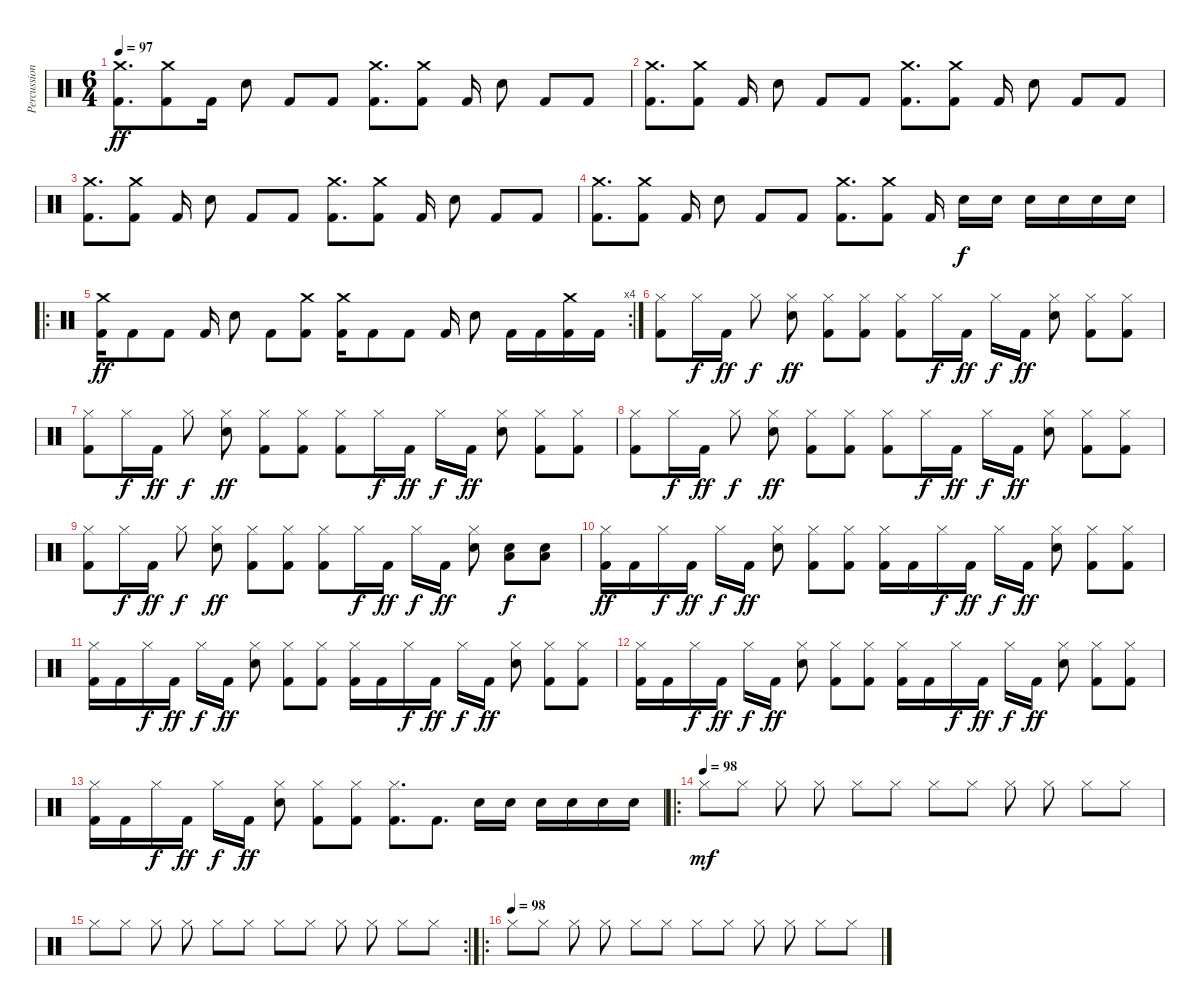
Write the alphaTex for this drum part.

\track ("Percussion" "Percussion") {instrument percussion}
\staff {score}
\articulation defaults
\ts (6 4)
\tempo 97
\clef neutral
\ks c
("Crash medium (hit)" "Kick (hit) 2").8{d dy ff} ("Crash medium (hit)" "Kick (hit) 2").8{beam merge} "Kick (hit) 2".16{beam split} "Electric Snare (hit)".8 "Kick (hit) 2".8 "Kick (hit) 2".8 ("Crash medium (hit)" "Kick (hit) 2").8{d} ("Crash medium (hit)" "Kick (hit) 2").8 "Kick (hit) 2".16{beam split} "Electric Snare (hit)".8 "Kick (hit) 2".8 "Kick (hit) 2".8 |
("Crash medium (hit)" "Kick (hit) 2").8{d} ("Crash medium (hit)" "Kick (hit) 2").8 "Kick (hit) 2".16{beam split} "Electric Snare (hit)".8 "Kick (hit) 2".8 "Kick (hit) 2".8 ("Crash medium (hit)" "Kick (hit) 2").8{d} ("Crash medium (hit)" "Kick (hit) 2").8 "Kick (hit) 2".16{beam split} "Electric Snare (hit)".8 "Kick (hit) 2".8 "Kick (hit) 2".8 |
("Crash medium (hit)" "Kick (hit) 2").8{d} ("Crash medium (hit)" "Kick (hit) 2").8 "Kick (hit) 2".16{beam split} "Electric Snare (hit)".8 "Kick (hit) 2".8 "Kick (hit) 2".8 ("Crash medium (hit)" "Kick (hit) 2").8{d} ("Crash medium (hit)" "Kick (hit) 2").8 "Kick (hit) 2".16{beam split} "Electric Snare (hit)".8 "Kick (hit) 2".8 "Kick (hit) 2".8 |
("Crash medium (hit)" "Kick (hit) 2").8{d} ("Crash medium (hit)" "Kick (hit) 2").8 "Kick (hit) 2".16{beam split} "Electric Snare (hit)".8 "Kick (hit) 2".8 "Kick (hit) 2".8 ("Crash medium (hit)" "Kick (hit) 2").8{d} ("Crash medium (hit)" "Kick (hit) 2").8 "Kick (hit) 2".16{beam split} "Electric Snare (hit)".16{dy f} "Electric Snare (hit)".16 "Electric Snare (hit)".16 "Electric Snare (hit)".16 "Electric Snare (hit)".16 "Electric Snare (hit)".16 |
\ro
\rc 4
("Crash medium (hit)" "Kick (hit) 2").16{dy ff} "Kick (hit) 2".8 "Kick (hit) 2".8 "Kick (hit) 2".16{beam split} "Electric Snare (hit)".8 "Kick (hit) 2".8 ("Crash medium (hit)" "Kick (hit) 2").8 ("Crash medium (hit)" "Kick (hit) 2").16 "Kick (hit) 2".8 "Kick (hit) 2".8 "Kick (hit) 2".16{beam split} "Electric Snare (hit)".8 "Kick (hit) 2".16 "Kick (hit) 2".16 ("Crash medium (hit)" "Kick (hit) 2").16 "Kick (hit) 2".16 |
("Hi-Hat (closed)" "Kick (hit) 2").8 "Hi-Hat (closed)".16{dy f} "Kick (hit) 2".16{dy ff} "Hi-Hat (closed)".8{dy f beam split} ("Hi-Hat (closed)" "Electric Snare (hit)").8{dy ff} ("Hi-Hat (closed)" "Kick (hit) 2").8 ("Hi-Hat (closed)" "Kick (hit) 2").8 ("Hi-Hat (closed)" "Kick (hit) 2").8 "Hi-Hat (closed)".16{dy f} "Kick (hit) 2".16{dy ff} "Hi-Hat (closed)".16{dy f} "Kick (hit) 2".16{dy ff beam split} ("Hi-Hat (closed)" "Electric Snare (hit)").8 ("Hi-Hat (closed)" "Kick (hit) 2").8 ("Hi-Hat (closed)" "Kick (hit) 2").8 |
("Hi-Hat (closed)" "Kick (hit) 2").8 "Hi-Hat (closed)".16{dy f} "Kick (hit) 2".16{dy ff} "Hi-Hat (closed)".8{dy f beam split} ("Hi-Hat (closed)" "Electric Snare (hit)").8{dy ff} ("Hi-Hat (closed)" "Kick (hit) 2").8 ("Hi-Hat (closed)" "Kick (hit) 2").8 ("Hi-Hat (closed)" "Kick (hit) 2").8 "Hi-Hat (closed)".16{dy f} "Kick (hit) 2".16{dy ff} "Hi-Hat (closed)".16{dy f} "Kick (hit) 2".16{dy ff beam split} ("Hi-Hat (closed)" "Electric Snare (hit)").8 ("Hi-Hat (closed)" "Kick (hit) 2").8 ("Hi-Hat (closed)" "Kick (hit) 2").8 |
("Hi-Hat (closed)" "Kick (hit) 2").8 "Hi-Hat (closed)".16{dy f} "Kick (hit) 2".16{dy ff} "Hi-Hat (closed)".8{dy f beam split} ("Hi-Hat (closed)" "Electric Snare (hit)").8{dy ff} ("Hi-Hat (closed)" "Kick (hit) 2").8 ("Hi-Hat (closed)" "Kick (hit) 2").8 ("Hi-Hat (closed)" "Kick (hit) 2").8 "Hi-Hat (closed)".16{dy f} "Kick (hit) 2".16{dy ff} "Hi-Hat (closed)".16{dy f} "Kick (hit) 2".16{dy ff beam split} ("Hi-Hat (closed)" "Electric Snare (hit)").8 ("Hi-Hat (closed)" "Kick (hit) 2").8 ("Hi-Hat (closed)" "Kick (hit) 2").8 |
("Hi-Hat (closed)" "Kick (hit) 2").8 "Hi-Hat (closed)".16{dy f} "Kick (hit) 2".16{dy ff} "Hi-Hat (closed)".8{dy f beam split} ("Hi-Hat (closed)" "Electric Snare (hit)").8{dy ff} ("Hi-Hat (closed)" "Kick (hit) 2").8 ("Hi-Hat (closed)" "Kick (hit) 2").8 ("Hi-Hat (closed)" "Kick (hit) 2").8 "Hi-Hat (closed)".16{dy f} "Kick (hit) 2".16{dy ff} "Hi-Hat (closed)".16{dy f} "Kick (hit) 2".16{dy ff beam split} ("Hi-Hat (closed)" "Electric Snare (hit)").8 ("Electric Snare (hit)" "Low Floor Tom (hit)").8{dy f} ("Electric Snare (hit)" "Low Floor Tom (hit)").8 |
("Hi-Hat (closed)" "Kick (hit) 2").16{dy ff} "Kick (hit) 2".16 "Hi-Hat (closed)".16{dy f} "Kick (hit) 2".16{dy ff} "Hi-Hat (closed)".16{dy f} "Kick (hit) 2".16{dy ff beam split} ("Hi-Hat (closed)" "Electric Snare (hit)").8 ("Hi-Hat (closed)" "Kick (hit) 2").8 ("Hi-Hat (closed)" "Kick (hit) 2").8 ("Hi-Hat (closed)" "Kick (hit) 2").16 "Kick (hit) 2".16 "Hi-Hat (closed)".16{dy f} "Kick (hit) 2".16{dy ff} "Hi-Hat (closed)".16{dy f} "Kick (hit) 2".16{dy ff beam split} ("Hi-Hat (closed)" "Electric Snare (hit)").8 ("Hi-Hat (closed)" "Kick (hit) 2").8 ("Hi-Hat (closed)" "Kick (hit) 2").8 |
("Hi-Hat (closed)" "Kick (hit) 2").16 "Kick (hit) 2".16 "Hi-Hat (closed)".16{dy f} "Kick (hit) 2".16{dy ff} "Hi-Hat (closed)".16{dy f} "Kick (hit) 2".16{dy ff beam split} ("Hi-Hat (closed)" "Electric Snare (hit)").8 ("Hi-Hat (closed)" "Kick (hit) 2").8 ("Hi-Hat (closed)" "Kick (hit) 2").8 ("Hi-Hat (closed)" "Kick (hit) 2").16 "Kick (hit) 2".16 "Hi-Hat (closed)".16{dy f} "Kick (hit) 2".16{dy ff} "Hi-Hat (closed)".16{dy f} "Kick (hit) 2".16{dy ff beam split} ("Hi-Hat (closed)" "Electric Snare (hit)").8 ("Hi-Hat (closed)" "Kick (hit) 2").8 ("Hi-Hat (closed)" "Kick (hit) 2").8 |
("Hi-Hat (closed)" "Kick (hit) 2").16 "Kick (hit) 2".16 "Hi-Hat (closed)".16{dy f} "Kick (hit) 2".16{dy ff} "Hi-Hat (closed)".16{dy f} "Kick (hit) 2".16{dy ff beam split} ("Hi-Hat (closed)" "Electric Snare (hit)").8 ("Hi-Hat (closed)" "Kick (hit) 2").8 ("Hi-Hat (closed)" "Kick (hit) 2").8 ("Hi-Hat (closed)" "Kick (hit) 2").16 "Kick (hit) 2".16 "Hi-Hat (closed)".16{dy f} "Kick (hit) 2".16{dy ff} "Hi-Hat (closed)".16{dy f} "Kick (hit) 2".16{dy ff beam split} ("Hi-Hat (closed)" "Electric Snare (hit)").8 ("Hi-Hat (closed)" "Kick (hit) 2").8 ("Hi-Hat (closed)" "Kick (hit) 2").8 |
("Hi-Hat (closed)" "Kick (hit) 2").16 "Kick (hit) 2".16 "Hi-Hat (closed)".16{dy f} "Kick (hit) 2".16{dy ff} "Hi-Hat (closed)".16{dy f} "Kick (hit) 2".16{dy ff beam split} ("Hi-Hat (closed)" "Electric Snare (hit)").8 ("Hi-Hat (closed)" "Kick (hit) 2").8 ("Hi-Hat (closed)" "Kick (hit) 2").8 ("Hi-Hat (closed)" "Kick (hit) 2").8{d} "Kick (hit) 2".8{d beam split} "Electric Snare (hit)".16 "Electric Snare (hit)".16 "Electric Snare (hit)".16 "Electric Snare (hit)".16 "Electric Snare (hit)".16 "Electric Snare (hit)".16 |
\ro
\tempo (98)
"Hi-Hat (closed)".8{dy mf} "Hi-Hat (closed)".8 "Hi-Hat (closed)".8{beam split} "Hi-Hat (closed)".8 "Hi-Hat (closed)".8 "Hi-Hat (closed)".8 "Hi-Hat (closed)".8 "Hi-Hat (closed)".8 "Hi-Hat (closed)".8{beam split} "Hi-Hat (closed)".8 "Hi-Hat (closed)".8 "Hi-Hat (closed)".8 |
\rc 2 "Hi-Hat (closed)".8 "Hi-Hat (closed)".8 "Hi-Hat (closed)".8{beam split} "Hi-Hat (closed)".8 "Hi-Hat (closed)".8 "Hi-Hat (closed)".8 "Hi-Hat (closed)".8 "Hi-Hat (closed)".8 "Hi-Hat (closed)".8{beam split} "Hi-Hat (closed)".8 "Hi-Hat (closed)".8 "Hi-Hat (closed)".8
|
\ro
\tempo (98)
"Hi-Hat (closed)".8 "Hi-Hat (closed)".8 "Hi-Hat (closed)".8{beam split} "Hi-Hat (closed)".8 "Hi-Hat (closed)".8 "Hi-Hat (closed)".8 "Hi-Hat (closed)".8 "Hi-Hat (closed)".8 "Hi-Hat (closed)".8{beam split} "Hi-Hat (closed)".8 "Hi-Hat (closed)".8 "Hi-Hat (closed)".8
